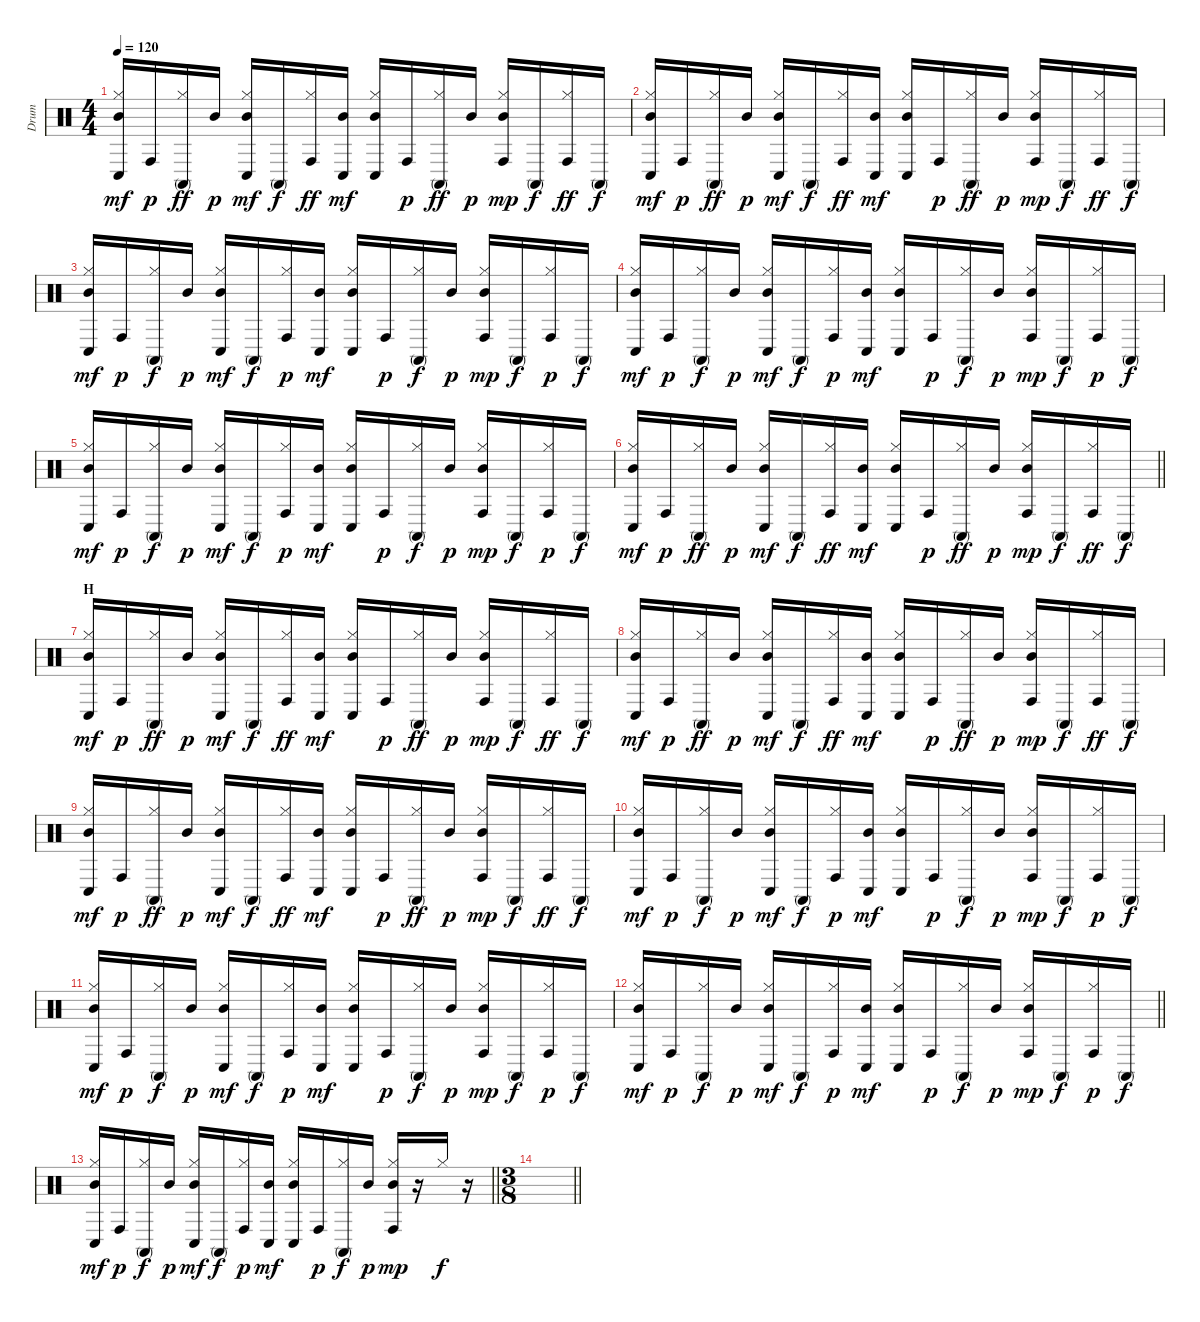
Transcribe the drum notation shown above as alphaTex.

\track ("Drum" "Drum") {instrument percussion}
\staff {score}
\articulation defaults
\ts (4 4)
\tempo 120
\clef neutral
\ks c
("Mid Tom (hit)" "Hi-Hat (closed)" "Conga low (hit)").16{dy mf} "Conga high (hit)".16{dy p} ("Hi-Hat (closed)" "Conga high (mute)").16{dy ff} "Mid Tom (hit)".16{dy p} ("Mid Tom (hit)" "Hi-Hat (closed)" "Conga low (hit)").16{dy mf} "Conga high (mute)".16{dy f} ("Conga high (hit)" "Hi-Hat (closed)").16{dy ff} ("Mid Tom (hit)" "Conga low (hit)").16{dy mf} ("Mid Tom (hit)" "Hi-Hat (closed)" "Conga low (hit)").16 "Conga high (hit)".16{dy p} ("Hi-Hat (closed)" "Conga high (mute)").16{dy ff} "Mid Tom (hit)".16{dy p} ("Mid Tom (hit)" "Hi-Hat (closed)" "Conga high (hit)").16{dy mp} "Conga high (mute)".16{dy f} ("Conga high (hit)" "Hi-Hat (closed)").16{dy ff} "Conga high (mute)".16{dy f} |
("Mid Tom (hit)" "Hi-Hat (closed)" "Conga low (hit)").16{dy mf} "Conga high (hit)".16{dy p} ("Hi-Hat (closed)" "Conga high (mute)").16{dy ff} "Mid Tom (hit)".16{dy p} ("Mid Tom (hit)" "Hi-Hat (closed)" "Conga low (hit)").16{dy mf} "Conga high (mute)".16{dy f} ("Conga high (hit)" "Hi-Hat (closed)").16{dy ff} ("Mid Tom (hit)" "Conga low (hit)").16{dy mf} ("Mid Tom (hit)" "Hi-Hat (closed)" "Conga low (hit)").16 "Conga high (hit)".16{dy p} ("Hi-Hat (closed)" "Conga high (mute)").16{dy ff} "Mid Tom (hit)".16{dy p} ("Mid Tom (hit)" "Hi-Hat (closed)" "Conga high (hit)").16{dy mp} "Conga high (mute)".16{dy f} ("Conga high (hit)" "Hi-Hat (closed)").16{dy ff} "Conga high (mute)".16{dy f} |
("Mid Tom (hit)" "Hi-Hat (closed)" "Conga low (hit)").16{dy mf} "Conga high (hit)".16{dy p} ("Hi-Hat (closed)" "Conga high (mute)").16{dy f} "Mid Tom (hit)".16{dy p} ("Mid Tom (hit)" "Hi-Hat (closed)" "Conga low (hit)").16{dy mf} "Conga high (mute)".16{dy f} ("Conga high (hit)" "Hi-Hat (closed)").16{dy p} ("Mid Tom (hit)" "Conga low (hit)").16{dy mf} ("Mid Tom (hit)" "Hi-Hat (closed)" "Conga low (hit)").16 "Conga high (hit)".16{dy p} ("Hi-Hat (closed)" "Conga high (mute)").16{dy f} "Mid Tom (hit)".16{dy p} ("Mid Tom (hit)" "Hi-Hat (closed)" "Conga high (hit)").16{dy mp} "Conga high (mute)".16{dy f} ("Conga high (hit)" "Hi-Hat (closed)").16{dy p} "Conga high (mute)".16{dy f} |
("Mid Tom (hit)" "Hi-Hat (closed)" "Conga low (hit)").16{dy mf} "Conga high (hit)".16{dy p} ("Hi-Hat (closed)" "Conga high (mute)").16{dy f} "Mid Tom (hit)".16{dy p} ("Mid Tom (hit)" "Hi-Hat (closed)" "Conga low (hit)").16{dy mf} "Conga high (mute)".16{dy f} ("Conga high (hit)" "Hi-Hat (closed)").16{dy p} ("Mid Tom (hit)" "Conga low (hit)").16{dy mf} ("Mid Tom (hit)" "Hi-Hat (closed)" "Conga low (hit)").16 "Conga high (hit)".16{dy p} ("Hi-Hat (closed)" "Conga high (mute)").16{dy f} "Mid Tom (hit)".16{dy p} ("Mid Tom (hit)" "Hi-Hat (closed)" "Conga high (hit)").16{dy mp} "Conga high (mute)".16{dy f} ("Conga high (hit)" "Hi-Hat (closed)").16{dy p} "Conga high (mute)".16{dy f} |
("Mid Tom (hit)" "Hi-Hat (closed)" "Conga low (hit)").16{dy mf} "Conga high (hit)".16{dy p} ("Hi-Hat (closed)" "Conga high (mute)").16{dy f} "Mid Tom (hit)".16{dy p} ("Mid Tom (hit)" "Hi-Hat (closed)" "Conga low (hit)").16{dy mf} "Conga high (mute)".16{dy f} ("Conga high (hit)" "Hi-Hat (closed)").16{dy p} ("Mid Tom (hit)" "Conga low (hit)").16{dy mf} ("Mid Tom (hit)" "Hi-Hat (closed)" "Conga low (hit)").16 "Conga high (hit)".16{dy p} ("Hi-Hat (closed)" "Conga high (mute)").16{dy f} "Mid Tom (hit)".16{dy p} ("Mid Tom (hit)" "Hi-Hat (closed)" "Conga high (hit)").16{dy mp} "Conga high (mute)".16{dy f} ("Conga high (hit)" "Hi-Hat (closed)").16{dy p} "Conga high (mute)".16{dy f} |
\barLineRight lightlight
("Mid Tom (hit)" "Hi-Hat (closed)" "Conga low (hit)").16{dy mf} "Conga high (hit)".16{dy p} ("Hi-Hat (closed)" "Conga high (mute)").16{dy ff} "Mid Tom (hit)".16{dy p} ("Mid Tom (hit)" "Hi-Hat (closed)" "Conga low (hit)").16{dy mf} "Conga high (mute)".16{dy f} ("Conga high (hit)" "Hi-Hat (closed)").16{dy ff} ("Mid Tom (hit)" "Conga low (hit)").16{dy mf} ("Mid Tom (hit)" "Hi-Hat (closed)" "Conga low (hit)").16 "Conga high (hit)".16{dy p} ("Hi-Hat (closed)" "Conga high (mute)").16{dy ff} "Mid Tom (hit)".16{dy p} ("Mid Tom (hit)" "Hi-Hat (closed)" "Conga high (hit)").16{dy mp} "Conga high (mute)".16{dy f} ("Conga high (hit)" "Hi-Hat (closed)").16{dy ff} "Conga high (mute)".16{dy f} |
\section ("" "H")
("Mid Tom (hit)" "Hi-Hat (closed)" "Conga low (hit)").16{dy mf} "Conga high (hit)".16{dy p} ("Hi-Hat (closed)" "Conga high (mute)").16{dy ff} "Mid Tom (hit)".16{dy p} ("Mid Tom (hit)" "Hi-Hat (closed)" "Conga low (hit)").16{dy mf} "Conga high (mute)".16{dy f} ("Conga high (hit)" "Hi-Hat (closed)").16{dy ff} ("Mid Tom (hit)" "Conga low (hit)").16{dy mf} ("Mid Tom (hit)" "Hi-Hat (closed)" "Conga low (hit)").16 "Conga high (hit)".16{dy p} ("Hi-Hat (closed)" "Conga high (mute)").16{dy ff} "Mid Tom (hit)".16{dy p} ("Mid Tom (hit)" "Hi-Hat (closed)" "Conga high (hit)").16{dy mp} "Conga high (mute)".16{dy f} ("Conga high (hit)" "Hi-Hat (closed)").16{dy ff} "Conga high (mute)".16{dy f} |
("Mid Tom (hit)" "Hi-Hat (closed)" "Conga low (hit)").16{dy mf} "Conga high (hit)".16{dy p} ("Hi-Hat (closed)" "Conga high (mute)").16{dy ff} "Mid Tom (hit)".16{dy p} ("Mid Tom (hit)" "Hi-Hat (closed)" "Conga low (hit)").16{dy mf} "Conga high (mute)".16{dy f} ("Conga high (hit)" "Hi-Hat (closed)").16{dy ff} ("Mid Tom (hit)" "Conga low (hit)").16{dy mf} ("Mid Tom (hit)" "Hi-Hat (closed)" "Conga low (hit)").16 "Conga high (hit)".16{dy p} ("Hi-Hat (closed)" "Conga high (mute)").16{dy ff} "Mid Tom (hit)".16{dy p} ("Mid Tom (hit)" "Hi-Hat (closed)" "Conga high (hit)").16{dy mp} "Conga high (mute)".16{dy f} ("Conga high (hit)" "Hi-Hat (closed)").16{dy ff} "Conga high (mute)".16{dy f} |
("Mid Tom (hit)" "Hi-Hat (closed)" "Conga low (hit)").16{dy mf} "Conga high (hit)".16{dy p} ("Hi-Hat (closed)" "Conga high (mute)").16{dy ff} "Mid Tom (hit)".16{dy p} ("Mid Tom (hit)" "Hi-Hat (closed)" "Conga low (hit)").16{dy mf} "Conga high (mute)".16{dy f} ("Conga high (hit)" "Hi-Hat (closed)").16{dy ff} ("Mid Tom (hit)" "Conga low (hit)").16{dy mf} ("Mid Tom (hit)" "Hi-Hat (closed)" "Conga low (hit)").16 "Conga high (hit)".16{dy p} ("Hi-Hat (closed)" "Conga high (mute)").16{dy ff} "Mid Tom (hit)".16{dy p} ("Mid Tom (hit)" "Hi-Hat (closed)" "Conga high (hit)").16{dy mp} "Conga high (mute)".16{dy f} ("Conga high (hit)" "Hi-Hat (closed)").16{dy ff} "Conga high (mute)".16{dy f} |
("Mid Tom (hit)" "Hi-Hat (closed)" "Conga low (hit)").16{dy mf} "Conga high (hit)".16{dy p} ("Hi-Hat (closed)" "Conga high (mute)").16{dy f} "Mid Tom (hit)".16{dy p} ("Mid Tom (hit)" "Hi-Hat (closed)" "Conga low (hit)").16{dy mf} "Conga high (mute)".16{dy f} ("Conga high (hit)" "Hi-Hat (closed)").16{dy p} ("Mid Tom (hit)" "Conga low (hit)").16{dy mf} ("Mid Tom (hit)" "Hi-Hat (closed)" "Conga low (hit)").16 "Conga high (hit)".16{dy p} ("Hi-Hat (closed)" "Conga high (mute)").16{dy f} "Mid Tom (hit)".16{dy p} ("Mid Tom (hit)" "Hi-Hat (closed)" "Conga high (hit)").16{dy mp} "Conga high (mute)".16{dy f} ("Conga high (hit)" "Hi-Hat (closed)").16{dy p} "Conga high (mute)".16{dy f} |
("Mid Tom (hit)" "Hi-Hat (closed)" "Conga low (hit)").16{dy mf} "Conga high (hit)".16{dy p} ("Hi-Hat (closed)" "Conga high (mute)").16{dy f} "Mid Tom (hit)".16{dy p} ("Mid Tom (hit)" "Hi-Hat (closed)" "Conga low (hit)").16{dy mf} "Conga high (mute)".16{dy f} ("Conga high (hit)" "Hi-Hat (closed)").16{dy p} ("Mid Tom (hit)" "Conga low (hit)").16{dy mf} ("Mid Tom (hit)" "Hi-Hat (closed)" "Conga low (hit)").16 "Conga high (hit)".16{dy p} ("Hi-Hat (closed)" "Conga high (mute)").16{dy f} "Mid Tom (hit)".16{dy p} ("Mid Tom (hit)" "Hi-Hat (closed)" "Conga high (hit)").16{dy mp} "Conga high (mute)".16{dy f} ("Conga high (hit)" "Hi-Hat (closed)").16{dy p} "Conga high (mute)".16{dy f} |
\barLineRight lightlight
("Mid Tom (hit)" "Hi-Hat (closed)" "Conga low (hit)").16{dy mf} "Conga high (hit)".16{dy p} ("Hi-Hat (closed)" "Conga high (mute)").16{dy f} "Mid Tom (hit)".16{dy p} ("Mid Tom (hit)" "Hi-Hat (closed)" "Conga low (hit)").16{dy mf} "Conga high (mute)".16{dy f} ("Conga high (hit)" "Hi-Hat (closed)").16{dy p} ("Mid Tom (hit)" "Conga low (hit)").16{dy mf} ("Mid Tom (hit)" "Hi-Hat (closed)" "Conga low (hit)").16 "Conga high (hit)".16{dy p} ("Hi-Hat (closed)" "Conga high (mute)").16{dy f} "Mid Tom (hit)".16{dy p} ("Mid Tom (hit)" "Hi-Hat (closed)" "Conga high (hit)").16{dy mp} "Conga high (mute)".16{dy f} ("Conga high (hit)" "Hi-Hat (closed)").16{dy p} "Conga high (mute)".16{dy f} |
\barLineRight lightlight
("Mid Tom (hit)" "Hi-Hat (closed)" "Conga low (hit)").16{dy mf} "Conga high (hit)".16{dy p} ("Hi-Hat (closed)" "Conga high (mute)").16{dy f} "Mid Tom (hit)".16{dy p} ("Mid Tom (hit)" "Hi-Hat (closed)" "Conga low (hit)").16{dy mf} "Conga high (mute)".16{dy f} ("Conga high (hit)" "Hi-Hat (closed)").16{dy p} ("Mid Tom (hit)" "Conga low (hit)").16{dy mf} ("Mid Tom (hit)" "Hi-Hat (closed)" "Conga low (hit)").16 "Conga high (hit)".16{dy p} ("Hi-Hat (closed)" "Conga high (mute)").16{dy f} "Mid Tom (hit)".16{dy p} ("Mid Tom (hit)" "Hi-Hat (closed)" "Conga high (hit)").16{dy mp} r.16 "Hi-Hat (closed)".16{dy f} r.16 |
\ts (3 8)
\barLineRight lightlight
